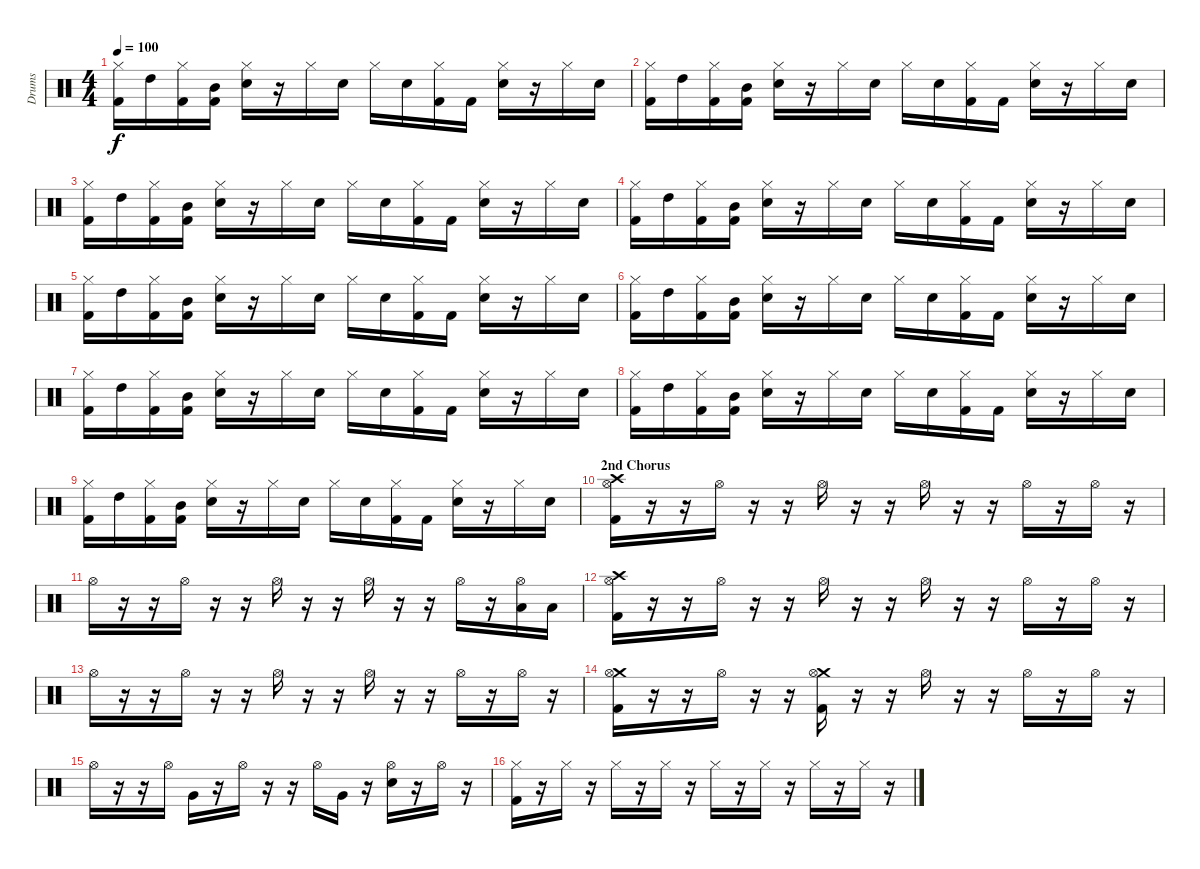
\track ("Drums" "Drums") {instrument percussion}
\staff {score}
\articulation defaults
\ts (4 4)
\tempo 100
\clef neutral
\ks c
("Hi-Hat (closed)" "Kick (hit) 2").16{dy f} "High Tom (hit)".16 ("Hi-Hat (closed)" "Kick (hit) 2").16 ("Mid Tom (hit)" "Kick (hit) 2").16 ("Hi-Hat (closed)" "Electric Snare (hit)").16 r.16 "Hi-Hat (closed)".16 "Electric Snare (hit)".16 "Hi-Hat (closed)".16 "Electric Snare (hit)".16 ("Hi-Hat (closed)" "Kick (hit) 2").16 "Kick (hit) 2".16 ("Hi-Hat (closed)" "Electric Snare (hit)").16 r.16 "Hi-Hat (closed)".16 "Electric Snare (hit)".16 |
("Hi-Hat (closed)" "Kick (hit) 2").16 "High Tom (hit)".16 ("Hi-Hat (closed)" "Kick (hit) 2").16 ("Mid Tom (hit)" "Kick (hit) 2").16 ("Hi-Hat (closed)" "Electric Snare (hit)").16 r.16 "Hi-Hat (closed)".16 "Electric Snare (hit)".16 "Hi-Hat (closed)".16 "Electric Snare (hit)".16 ("Hi-Hat (closed)" "Kick (hit) 2").16 "Kick (hit) 2".16 ("Hi-Hat (closed)" "Electric Snare (hit)").16 r.16 "Hi-Hat (closed)".16 "Electric Snare (hit)".16 |
("Hi-Hat (closed)" "Kick (hit) 2").16 "High Tom (hit)".16 ("Hi-Hat (closed)" "Kick (hit) 2").16 ("Mid Tom (hit)" "Kick (hit) 2").16 ("Hi-Hat (closed)" "Electric Snare (hit)").16 r.16 "Hi-Hat (closed)".16 "Electric Snare (hit)".16 "Hi-Hat (closed)".16 "Electric Snare (hit)".16 ("Hi-Hat (closed)" "Kick (hit) 2").16 "Kick (hit) 2".16 ("Hi-Hat (closed)" "Electric Snare (hit)").16 r.16 "Hi-Hat (closed)".16 "Electric Snare (hit)".16 |
("Hi-Hat (closed)" "Kick (hit) 2").16 "High Tom (hit)".16 ("Hi-Hat (closed)" "Kick (hit) 2").16 ("Mid Tom (hit)" "Kick (hit) 2").16 ("Hi-Hat (closed)" "Electric Snare (hit)").16 r.16 "Hi-Hat (closed)".16 "Electric Snare (hit)".16 "Hi-Hat (closed)".16 "Electric Snare (hit)".16 ("Hi-Hat (closed)" "Kick (hit) 2").16 "Kick (hit) 2".16 ("Hi-Hat (closed)" "Electric Snare (hit)").16 r.16 "Hi-Hat (closed)".16 "Electric Snare (hit)".16 |
("Hi-Hat (closed)" "Kick (hit) 2").16 "High Tom (hit)".16 ("Hi-Hat (closed)" "Kick (hit) 2").16 ("Mid Tom (hit)" "Kick (hit) 2").16 ("Hi-Hat (closed)" "Electric Snare (hit)").16 r.16 "Hi-Hat (closed)".16 "Electric Snare (hit)".16 "Hi-Hat (closed)".16 "Electric Snare (hit)".16 ("Hi-Hat (closed)" "Kick (hit) 2").16 "Kick (hit) 2".16 ("Hi-Hat (closed)" "Electric Snare (hit)").16 r.16 "Hi-Hat (closed)".16 "Electric Snare (hit)".16 |
("Hi-Hat (closed)" "Kick (hit) 2").16 "High Tom (hit)".16 ("Hi-Hat (closed)" "Kick (hit) 2").16 ("Mid Tom (hit)" "Kick (hit) 2").16 ("Hi-Hat (closed)" "Electric Snare (hit)").16 r.16 "Hi-Hat (closed)".16 "Electric Snare (hit)".16 "Hi-Hat (closed)".16 "Electric Snare (hit)".16 ("Hi-Hat (closed)" "Kick (hit) 2").16 "Kick (hit) 2".16 ("Hi-Hat (closed)" "Electric Snare (hit)").16 r.16 "Hi-Hat (closed)".16 "Electric Snare (hit)".16 |
("Hi-Hat (closed)" "Kick (hit) 2").16 "High Tom (hit)".16 ("Hi-Hat (closed)" "Kick (hit) 2").16 ("Mid Tom (hit)" "Kick (hit) 2").16 ("Hi-Hat (closed)" "Electric Snare (hit)").16 r.16 "Hi-Hat (closed)".16 "Electric Snare (hit)".16 "Hi-Hat (closed)".16 "Electric Snare (hit)".16 ("Hi-Hat (closed)" "Kick (hit) 2").16 "Kick (hit) 2".16 ("Hi-Hat (closed)" "Electric Snare (hit)").16 r.16 "Hi-Hat (closed)".16 "Electric Snare (hit)".16 |
("Hi-Hat (closed)" "Kick (hit) 2").16 "High Tom (hit)".16 ("Hi-Hat (closed)" "Kick (hit) 2").16 ("Mid Tom (hit)" "Kick (hit) 2").16 ("Hi-Hat (closed)" "Electric Snare (hit)").16 r.16 "Hi-Hat (closed)".16 "Electric Snare (hit)".16 "Hi-Hat (closed)".16 "Electric Snare (hit)".16 ("Hi-Hat (closed)" "Kick (hit) 2").16 "Kick (hit) 2".16 ("Hi-Hat (closed)" "Electric Snare (hit)").16 r.16 "Hi-Hat (closed)".16 "Electric Snare (hit)".16 |
("Hi-Hat (closed)" "Kick (hit) 2").16 "High Tom (hit)".16 ("Hi-Hat (closed)" "Kick (hit) 2").16 ("Mid Tom (hit)" "Kick (hit) 2").16 ("Hi-Hat (closed)" "Electric Snare (hit)").16 r.16 "Hi-Hat (closed)".16 "Electric Snare (hit)".16 "Hi-Hat (closed)".16 "Electric Snare (hit)".16 ("Hi-Hat (closed)" "Kick (hit) 2").16 "Kick (hit) 2".16 ("Hi-Hat (closed)" "Electric Snare (hit)").16 r.16 "Hi-Hat (closed)".16 "Electric Snare (hit)".16 |
\section ("" "2nd Chorus")
("Crash high (hit)" "Hi-Hat (open)" "Kick (hit) 2").16 r.16 r.16 "Hi-Hat (open)".16 r.16 r.16 "Hi-Hat (open)".16 r.16 r.16 "Hi-Hat (open)".16 r.16 r.16 "Hi-Hat (open)".16 r.16 "Hi-Hat (open)".16 r.16 |
"Hi-Hat (open)".16 r.16 r.16 "Hi-Hat (open)".16 r.16 r.16 "Hi-Hat (open)".16 r.16 r.16 "Hi-Hat (open)".16 r.16 r.16 "Hi-Hat (open)".16 r.16 ("Hi-Hat (open)" "Low Tom (hit)").16 "Low Tom (hit)".16 |
("Crash high (hit)" "Hi-Hat (open)" "Kick (hit) 2").16 r.16 r.16 "Hi-Hat (open)".16 r.16 r.16 "Hi-Hat (open)".16 r.16 r.16 "Hi-Hat (open)".16 r.16 r.16 "Hi-Hat (open)".16 r.16 "Hi-Hat (open)".16 r.16 |
"Hi-Hat (open)".16 r.16 r.16 "Hi-Hat (open)".16 r.16 r.16 "Hi-Hat (open)".16 r.16 r.16 "Hi-Hat (open)".16 r.16 r.16 "Hi-Hat (open)".16 r.16 "Hi-Hat (open)".16 r.16 |
("Crash medium (hit)" "Hi-Hat (open)" "Kick (hit) 2").16 r.16 r.16 "Hi-Hat (open)".16 r.16 r.16 ("Crash medium (hit)" "Hi-Hat (open)" "Kick (hit) 2").16 r.16 r.16 "Hi-Hat (open)".16 r.16 r.16 "Hi-Hat (open)".16 r.16 "Hi-Hat (open)".16 r.16 |
"Hi-Hat (open)".16 r.16 r.16 "Hi-Hat (open)".16 "Very Low Tom (hit)".16 r.16 "Hi-Hat (open)".16 r.16 r.16 "Hi-Hat (open)".16 "Very Low Tom (hit)".16 r.16 ("Hi-Hat (open)" "Snare (hit) 2").16 r.16 "Hi-Hat (open)".16 r.16 |
("Hi-Hat (closed)" "Kick (hit) 2").16 r.16 "Hi-Hat (closed)".16 r.16 "Hi-Hat (closed)".16 r.16 "Hi-Hat (closed)".16 r.16 "Hi-Hat (closed)".16 r.16 "Hi-Hat (closed)".16 r.16 "Hi-Hat (closed)".16 r.16 "Hi-Hat (closed)".16 r.16
